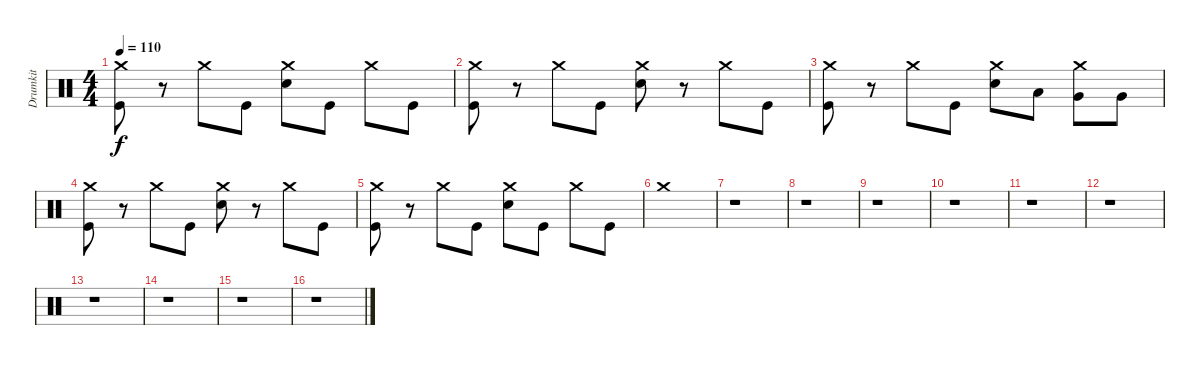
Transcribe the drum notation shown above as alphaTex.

\track ("Drumkit" "Drumkit") {instrument percussion}
\staff {score}
\articulation defaults
\ts (4 4)
\tempo 110
\clef neutral
\ks c
("Crash medium (hit)" "Kick (hit)").8{dy f} r.8 "Crash medium (hit)".8 "Kick (hit)".8 ("Crash medium (hit)" "Snare (hit) 2").8 "Kick (hit)".8 "Crash medium (hit)".8 "Kick (hit)".8 |
("Crash medium (hit)" "Kick (hit)").8 r.8 "Crash medium (hit)".8 "Kick (hit)".8 ("Crash medium (hit)" "Snare (hit) 2").8 r.8 "Crash medium (hit)".8 "Kick (hit)".8 |
("Crash medium (hit)" "Kick (hit)").8 r.8 "Crash medium (hit)".8 "Kick (hit)".8 ("Crash medium (hit)" "Snare (hit) 2").8 "Low Tom (hit)".8 ("Crash medium (hit)" "Very Low Tom (hit)").8 "Very Low Tom (hit)".8 |
("Crash medium (hit)" "Kick (hit)").8 r.8 "Crash medium (hit)".8 "Kick (hit)".8 ("Crash medium (hit)" "Snare (hit) 2").8 r.8 "Crash medium (hit)".8 "Kick (hit)".8 |
("Crash medium (hit)" "Kick (hit)").8 r.8 "Crash medium (hit)".8 "Kick (hit)".8 ("Crash medium (hit)" "Snare (hit) 2").8 "Kick (hit)".8 "Crash medium (hit)".8 "Kick (hit)".8 |
"Crash medium (hit)".1 |
r.1 |
r.1 |
r.1 |
r.1 |
r.1 |
r.1 |
r.1 |
r.1 |
r.1 |
r.1
